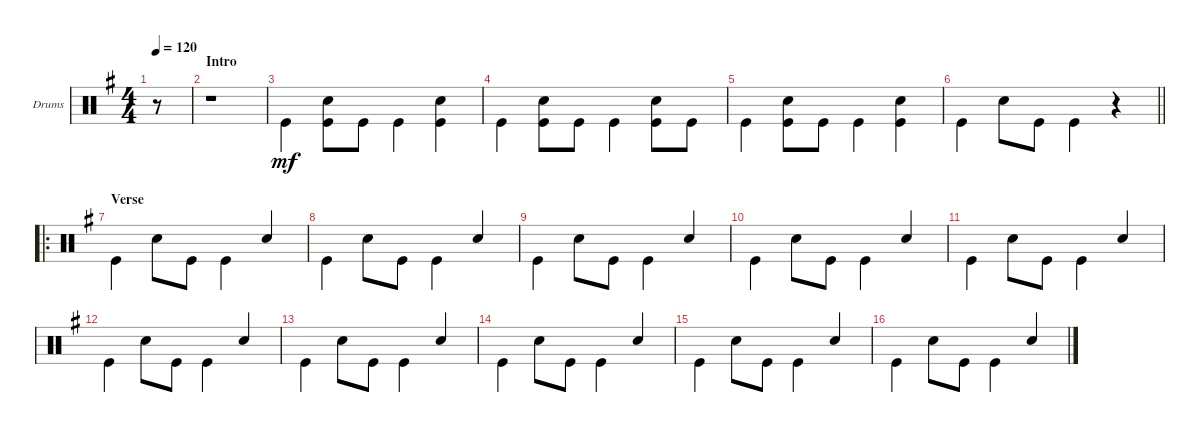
\defaultSystemsLayout 4
\bracketExtendMode groupsimilarinstruments
\useSystemSignSeparator
\multiTrackTrackNamePolicy allsystems
\firstSystemTrackNameOrientation horizontal
\otherSystemsTrackNameOrientation horizontal
\track ("Drumkit" "Drums") {multiBarRest instrument percussion}
\staff {score}
\articulation defaults
\ts (4 4)
\ac
\tempo 120
\clef neutral
\ks g
r.8{dy mf} |
\section ("" "Intro")
r.1 |
"Kick (hit)".4{beam invert} ("Kick (hit)" "Snare (hit) 2").8{beam invert} "Kick (hit)".8 "Kick (hit)".4{beam invert} ("Kick (hit)" "Snare (hit) 2").4{beam invert} |
"Kick (hit)".4{beam invert} ("Kick (hit)" "Snare (hit) 2").8{beam invert} "Kick (hit)".8 "Kick (hit)".4{beam invert} ("Kick (hit)" "Snare (hit) 2").8{beam invert} "Kick (hit)".8 |
"Kick (hit)".4{beam invert} ("Kick (hit)" "Snare (hit) 2").8{beam invert} "Kick (hit)".8 "Kick (hit)".4{beam invert} ("Kick (hit)" "Snare (hit) 2").4{beam invert} |
\barLineRight lightlight "Kick (hit)".4{beam invert} "Snare (hit) 2".8 "Kick (hit)".8 "Kick (hit)".4{beam invert}
r.4{beam invert} |
\ro
\section ("" "Verse")
"Kick (hit)".4{beam invert} "Snare (hit) 2".8{beam invert} "Kick (hit)".8 "Kick (hit)".4{beam invert} "Snare (hit) 2".4{beam invert} |
"Kick (hit)".4{beam invert} "Snare (hit) 2".8{beam invert} "Kick (hit)".8 "Kick (hit)".4{beam invert} "Snare (hit) 2".4{beam invert} |
"Kick (hit)".4{beam invert} "Snare (hit) 2".8{beam invert} "Kick (hit)".8 "Kick (hit)".4{beam invert} "Snare (hit) 2".4{beam invert} |
"Kick (hit)".4{beam invert} "Snare (hit) 2".8{beam invert} "Kick (hit)".8 "Kick (hit)".4{beam invert} "Snare (hit) 2".4{beam invert} |
"Kick (hit)".4{beam invert} "Snare (hit) 2".8{beam invert} "Kick (hit)".8 "Kick (hit)".4{beam invert} "Snare (hit) 2".4{beam invert} |
"Kick (hit)".4{beam invert} "Snare (hit) 2".8{beam invert} "Kick (hit)".8 "Kick (hit)".4{beam invert} "Snare (hit) 2".4{beam invert} |
"Kick (hit)".4{beam invert} "Snare (hit) 2".8{beam invert} "Kick (hit)".8 "Kick (hit)".4{beam invert} "Snare (hit) 2".4{beam invert} |
"Kick (hit)".4{beam invert} "Snare (hit) 2".8{beam invert} "Kick (hit)".8 "Kick (hit)".4{beam invert} "Snare (hit) 2".4{beam invert} |
"Kick (hit)".4{beam invert} "Snare (hit) 2".8{beam invert} "Kick (hit)".8 "Kick (hit)".4{beam invert} "Snare (hit) 2".4{beam invert} |
"Kick (hit)".4{beam invert} "Snare (hit) 2".8{beam invert} "Kick (hit)".8 "Kick (hit)".4{beam invert} "Snare (hit) 2".4{beam invert}
